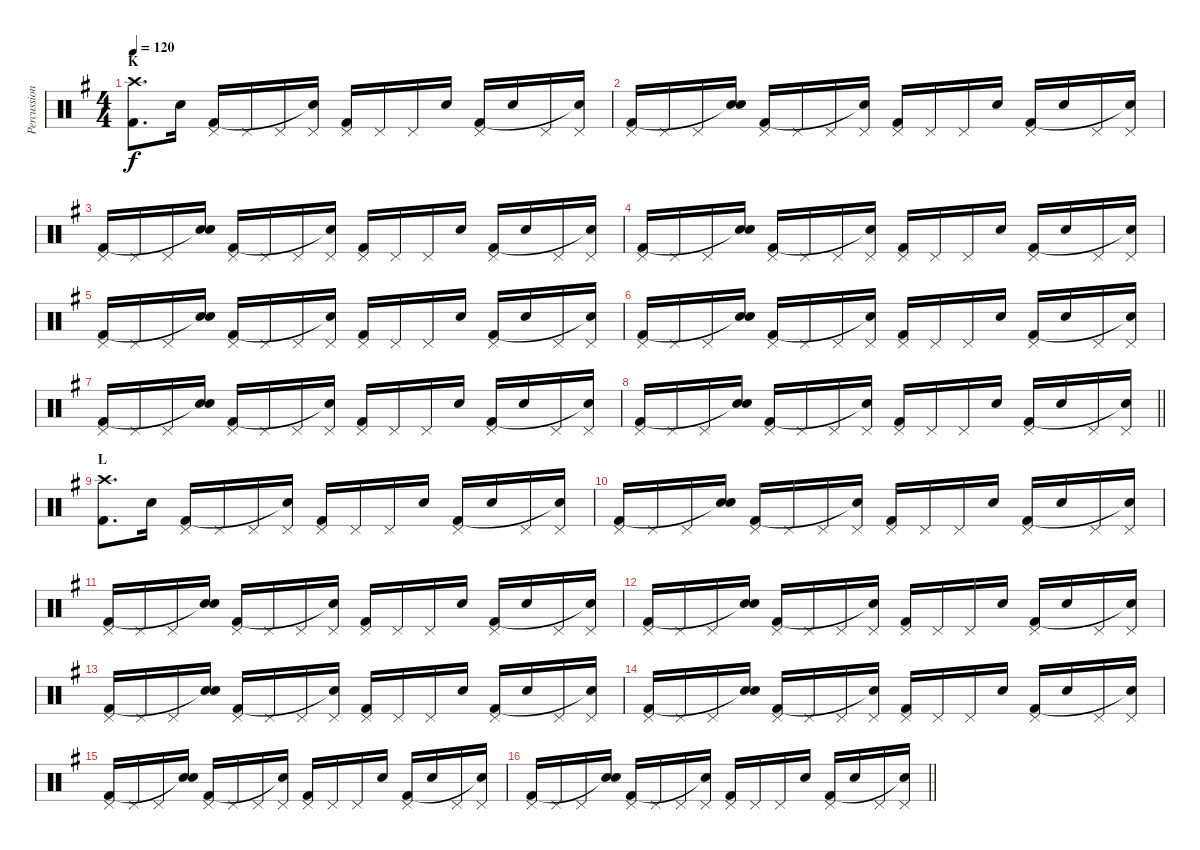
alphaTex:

\track ("Percussion" "Percussion") {instrument percussion}
\staff {score}
\articulation defaults
\ts (4 4)
\section ("" "K")
\tempo 120
\clef neutral
\ks g
("Crash high (hit)" "Kick (hit) 2").8{d dy f} "Electric Snare (hit)".16 ("Pedal Hi-Hat (hit)" "Kick (hit) 2").16 "Pedal Hi-Hat (hit)".16 "Pedal Hi-Hat (hit)".16 ("Pedal Hi-Hat (hit)" "Snare (hit)"{t}).16 ("Pedal Hi-Hat (hit)" "Kick (hit) 2").16 "Pedal Hi-Hat (hit)".16 "Pedal Hi-Hat (hit)".16 "Electric Snare (hit)".16 ("Pedal Hi-Hat (hit)" "Kick (hit) 2").16 "Electric Snare (hit)".16 "Pedal Hi-Hat (hit)".16 ("Pedal Hi-Hat (hit)" "Snare (hit)"{t}).16 |
("Pedal Hi-Hat (hit)" "Kick (hit) 2").16 "Pedal Hi-Hat (hit)".16 "Pedal Hi-Hat (hit)".16 ("Electric Snare (hit)" "Snare (hit)"{t}).16 ("Pedal Hi-Hat (hit)" "Kick (hit) 2").16 "Pedal Hi-Hat (hit)".16 "Pedal Hi-Hat (hit)".16 ("Pedal Hi-Hat (hit)" "Snare (hit)"{t}).16 ("Pedal Hi-Hat (hit)" "Kick (hit) 2").16 "Pedal Hi-Hat (hit)".16 "Pedal Hi-Hat (hit)".16 "Electric Snare (hit)".16 ("Pedal Hi-Hat (hit)" "Kick (hit) 2").16 "Electric Snare (hit)".16 "Pedal Hi-Hat (hit)".16 ("Pedal Hi-Hat (hit)" "Snare (hit)"{t}).16 |
("Pedal Hi-Hat (hit)" "Kick (hit) 2").16 "Pedal Hi-Hat (hit)".16 "Pedal Hi-Hat (hit)".16 ("Electric Snare (hit)" "Snare (hit)"{t}).16 ("Pedal Hi-Hat (hit)" "Kick (hit) 2").16 "Pedal Hi-Hat (hit)".16 "Pedal Hi-Hat (hit)".16 ("Pedal Hi-Hat (hit)" "Snare (hit)"{t}).16 ("Pedal Hi-Hat (hit)" "Kick (hit) 2").16 "Pedal Hi-Hat (hit)".16 "Pedal Hi-Hat (hit)".16 "Electric Snare (hit)".16 ("Pedal Hi-Hat (hit)" "Kick (hit) 2").16 "Electric Snare (hit)".16 "Pedal Hi-Hat (hit)".16 ("Pedal Hi-Hat (hit)" "Snare (hit)"{t}).16 |
("Pedal Hi-Hat (hit)" "Kick (hit) 2").16 "Pedal Hi-Hat (hit)".16 "Pedal Hi-Hat (hit)".16 ("Electric Snare (hit)" "Snare (hit)"{t}).16 ("Pedal Hi-Hat (hit)" "Kick (hit) 2").16 "Pedal Hi-Hat (hit)".16 "Pedal Hi-Hat (hit)".16 ("Pedal Hi-Hat (hit)" "Snare (hit)"{t}).16 ("Pedal Hi-Hat (hit)" "Kick (hit) 2").16 "Pedal Hi-Hat (hit)".16 "Pedal Hi-Hat (hit)".16 "Electric Snare (hit)".16 ("Pedal Hi-Hat (hit)" "Kick (hit) 2").16 "Electric Snare (hit)".16 "Pedal Hi-Hat (hit)".16 ("Pedal Hi-Hat (hit)" "Snare (hit)"{t}).16 |
("Pedal Hi-Hat (hit)" "Kick (hit) 2").16 "Pedal Hi-Hat (hit)".16 "Pedal Hi-Hat (hit)".16 ("Electric Snare (hit)" "Snare (hit)"{t}).16 ("Pedal Hi-Hat (hit)" "Kick (hit) 2").16 "Pedal Hi-Hat (hit)".16 "Pedal Hi-Hat (hit)".16 ("Pedal Hi-Hat (hit)" "Snare (hit)"{t}).16 ("Pedal Hi-Hat (hit)" "Kick (hit) 2").16 "Pedal Hi-Hat (hit)".16 "Pedal Hi-Hat (hit)".16 "Electric Snare (hit)".16 ("Pedal Hi-Hat (hit)" "Kick (hit) 2").16 "Electric Snare (hit)".16 "Pedal Hi-Hat (hit)".16 ("Pedal Hi-Hat (hit)" "Snare (hit)"{t}).16 |
("Pedal Hi-Hat (hit)" "Kick (hit) 2").16 "Pedal Hi-Hat (hit)".16 "Pedal Hi-Hat (hit)".16 ("Electric Snare (hit)" "Snare (hit)"{t}).16 ("Pedal Hi-Hat (hit)" "Kick (hit) 2").16 "Pedal Hi-Hat (hit)".16 "Pedal Hi-Hat (hit)".16 ("Pedal Hi-Hat (hit)" "Snare (hit)"{t}).16 ("Pedal Hi-Hat (hit)" "Kick (hit) 2").16 "Pedal Hi-Hat (hit)".16 "Pedal Hi-Hat (hit)".16 "Electric Snare (hit)".16 ("Pedal Hi-Hat (hit)" "Kick (hit) 2").16 "Electric Snare (hit)".16 "Pedal Hi-Hat (hit)".16 ("Pedal Hi-Hat (hit)" "Snare (hit)"{t}).16 |
("Pedal Hi-Hat (hit)" "Kick (hit) 2").16 "Pedal Hi-Hat (hit)".16 "Pedal Hi-Hat (hit)".16 ("Electric Snare (hit)" "Snare (hit)"{t}).16 ("Pedal Hi-Hat (hit)" "Kick (hit) 2").16 "Pedal Hi-Hat (hit)".16 "Pedal Hi-Hat (hit)".16 ("Pedal Hi-Hat (hit)" "Snare (hit)"{t}).16 ("Pedal Hi-Hat (hit)" "Kick (hit) 2").16 "Pedal Hi-Hat (hit)".16 "Pedal Hi-Hat (hit)".16 "Electric Snare (hit)".16 ("Pedal Hi-Hat (hit)" "Kick (hit) 2").16 "Electric Snare (hit)".16 "Pedal Hi-Hat (hit)".16 ("Pedal Hi-Hat (hit)" "Snare (hit)"{t}).16 |
\barLineRight lightlight
("Pedal Hi-Hat (hit)" "Kick (hit) 2").16 "Pedal Hi-Hat (hit)".16 "Pedal Hi-Hat (hit)".16 ("Electric Snare (hit)" "Snare (hit)"{t}).16 ("Pedal Hi-Hat (hit)" "Kick (hit) 2").16 "Pedal Hi-Hat (hit)".16 "Pedal Hi-Hat (hit)".16 ("Pedal Hi-Hat (hit)" "Snare (hit)"{t}).16 ("Pedal Hi-Hat (hit)" "Kick (hit) 2").16 "Pedal Hi-Hat (hit)".16 "Pedal Hi-Hat (hit)".16 "Electric Snare (hit)".16 ("Pedal Hi-Hat (hit)" "Kick (hit) 2").16 "Electric Snare (hit)".16 "Pedal Hi-Hat (hit)".16 ("Pedal Hi-Hat (hit)" "Snare (hit)"{t}).16 |
\section ("" "L")
("Crash high (hit)" "Kick (hit) 2").8{d} "Electric Snare (hit)".16 ("Pedal Hi-Hat (hit)" "Kick (hit) 2").16 "Pedal Hi-Hat (hit)".16 "Pedal Hi-Hat (hit)".16 ("Pedal Hi-Hat (hit)" "Snare (hit)"{t}).16 ("Pedal Hi-Hat (hit)" "Kick (hit) 2").16 "Pedal Hi-Hat (hit)".16 "Pedal Hi-Hat (hit)".16 "Electric Snare (hit)".16 ("Pedal Hi-Hat (hit)" "Kick (hit) 2").16 "Electric Snare (hit)".16 "Pedal Hi-Hat (hit)".16 ("Pedal Hi-Hat (hit)" "Snare (hit)"{t}).16 |
("Pedal Hi-Hat (hit)" "Kick (hit) 2").16 "Pedal Hi-Hat (hit)".16 "Pedal Hi-Hat (hit)".16 ("Electric Snare (hit)" "Snare (hit)"{t}).16 ("Pedal Hi-Hat (hit)" "Kick (hit) 2").16 "Pedal Hi-Hat (hit)".16 "Pedal Hi-Hat (hit)".16 ("Pedal Hi-Hat (hit)" "Snare (hit)"{t}).16 ("Pedal Hi-Hat (hit)" "Kick (hit) 2").16 "Pedal Hi-Hat (hit)".16 "Pedal Hi-Hat (hit)".16 "Electric Snare (hit)".16 ("Pedal Hi-Hat (hit)" "Kick (hit) 2").16 "Electric Snare (hit)".16 "Pedal Hi-Hat (hit)".16 ("Pedal Hi-Hat (hit)" "Snare (hit)"{t}).16 |
("Pedal Hi-Hat (hit)" "Kick (hit) 2").16 "Pedal Hi-Hat (hit)".16 "Pedal Hi-Hat (hit)".16 ("Electric Snare (hit)" "Snare (hit)"{t}).16 ("Pedal Hi-Hat (hit)" "Kick (hit) 2").16 "Pedal Hi-Hat (hit)".16 "Pedal Hi-Hat (hit)".16 ("Pedal Hi-Hat (hit)" "Snare (hit)"{t}).16 ("Pedal Hi-Hat (hit)" "Kick (hit) 2").16 "Pedal Hi-Hat (hit)".16 "Pedal Hi-Hat (hit)".16 "Electric Snare (hit)".16 ("Pedal Hi-Hat (hit)" "Kick (hit) 2").16 "Electric Snare (hit)".16 "Pedal Hi-Hat (hit)".16 ("Pedal Hi-Hat (hit)" "Snare (hit)"{t}).16 |
("Pedal Hi-Hat (hit)" "Kick (hit) 2").16 "Pedal Hi-Hat (hit)".16 "Pedal Hi-Hat (hit)".16 ("Electric Snare (hit)" "Snare (hit)"{t}).16 ("Pedal Hi-Hat (hit)" "Kick (hit) 2").16 "Pedal Hi-Hat (hit)".16 "Pedal Hi-Hat (hit)".16 ("Pedal Hi-Hat (hit)" "Snare (hit)"{t}).16 ("Pedal Hi-Hat (hit)" "Kick (hit) 2").16 "Pedal Hi-Hat (hit)".16 "Pedal Hi-Hat (hit)".16 "Electric Snare (hit)".16 ("Pedal Hi-Hat (hit)" "Kick (hit) 2").16 "Electric Snare (hit)".16 "Pedal Hi-Hat (hit)".16 ("Pedal Hi-Hat (hit)" "Snare (hit)"{t}).16 |
("Pedal Hi-Hat (hit)" "Kick (hit) 2").16 "Pedal Hi-Hat (hit)".16 "Pedal Hi-Hat (hit)".16 ("Electric Snare (hit)" "Snare (hit)"{t}).16 ("Pedal Hi-Hat (hit)" "Kick (hit) 2").16 "Pedal Hi-Hat (hit)".16 "Pedal Hi-Hat (hit)".16 ("Pedal Hi-Hat (hit)" "Snare (hit)"{t}).16 ("Pedal Hi-Hat (hit)" "Kick (hit) 2").16 "Pedal Hi-Hat (hit)".16 "Pedal Hi-Hat (hit)".16 "Electric Snare (hit)".16 ("Pedal Hi-Hat (hit)" "Kick (hit) 2").16 "Electric Snare (hit)".16 "Pedal Hi-Hat (hit)".16 ("Pedal Hi-Hat (hit)" "Snare (hit)"{t}).16 |
("Pedal Hi-Hat (hit)" "Kick (hit) 2").16 "Pedal Hi-Hat (hit)".16 "Pedal Hi-Hat (hit)".16 ("Electric Snare (hit)" "Snare (hit)"{t}).16 ("Pedal Hi-Hat (hit)" "Kick (hit) 2").16 "Pedal Hi-Hat (hit)".16 "Pedal Hi-Hat (hit)".16 ("Pedal Hi-Hat (hit)" "Snare (hit)"{t}).16 ("Pedal Hi-Hat (hit)" "Kick (hit) 2").16 "Pedal Hi-Hat (hit)".16 "Pedal Hi-Hat (hit)".16 "Electric Snare (hit)".16 ("Pedal Hi-Hat (hit)" "Kick (hit) 2").16 "Electric Snare (hit)".16 "Pedal Hi-Hat (hit)".16 ("Pedal Hi-Hat (hit)" "Snare (hit)"{t}).16 |
("Pedal Hi-Hat (hit)" "Kick (hit) 2").16 "Pedal Hi-Hat (hit)".16 "Pedal Hi-Hat (hit)".16 ("Electric Snare (hit)" "Snare (hit)"{t}).16 ("Pedal Hi-Hat (hit)" "Kick (hit) 2").16 "Pedal Hi-Hat (hit)".16 "Pedal Hi-Hat (hit)".16 ("Pedal Hi-Hat (hit)" "Snare (hit)"{t}).16 ("Pedal Hi-Hat (hit)" "Kick (hit) 2").16 "Pedal Hi-Hat (hit)".16 "Pedal Hi-Hat (hit)".16 "Electric Snare (hit)".16 ("Pedal Hi-Hat (hit)" "Kick (hit) 2").16 "Electric Snare (hit)".16 "Pedal Hi-Hat (hit)".16 ("Pedal Hi-Hat (hit)" "Snare (hit)"{t}).16 |
\barLineRight lightlight
("Pedal Hi-Hat (hit)" "Kick (hit) 2").16 "Pedal Hi-Hat (hit)".16 "Pedal Hi-Hat (hit)".16 ("Electric Snare (hit)" "Snare (hit)"{t}).16 ("Pedal Hi-Hat (hit)" "Kick (hit) 2").16 "Pedal Hi-Hat (hit)".16 "Pedal Hi-Hat (hit)".16 ("Pedal Hi-Hat (hit)" "Snare (hit)"{t}).16 ("Pedal Hi-Hat (hit)" "Kick (hit) 2").16 "Pedal Hi-Hat (hit)".16 "Pedal Hi-Hat (hit)".16 "Electric Snare (hit)".16 ("Pedal Hi-Hat (hit)" "Kick (hit) 2").16 "Electric Snare (hit)".16 "Pedal Hi-Hat (hit)".16 ("Pedal Hi-Hat (hit)" "Snare (hit)"{t}).16
